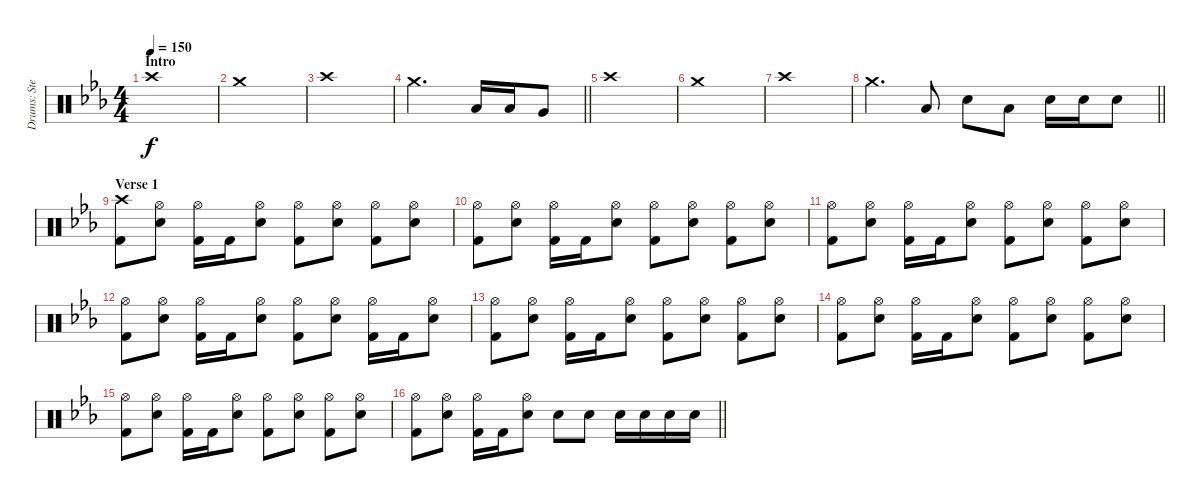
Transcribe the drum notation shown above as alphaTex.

\track ("Drums: Stefan Svantesson" "Drums: Ste") {instrument percussion}
\staff {score}
\articulation defaults
\ts (4 4)
\section ("" "Intro")
\tempo 150
\clef neutral
\ks cminor "Crash high (hit)".1{dy f}
|
"Crash medium (hit)".1 |
"Crash high (hit)".1 |
\barLineRight lightlight "Crash medium (hit)".2{d} "Low Tom (hit)".16 "Low Tom (hit)".16 "Very Low Tom (hit)".8
|
"Crash high (hit)".1 |
"Crash medium (hit)".1 |
"Crash high (hit)".1 |
\barLineRight lightlight "Crash medium (hit)".4{d} "Low Tom (hit)".8 "Electric Snare (hit)".8 "Low Tom (hit)".8 "Electric Snare (hit)".16 "Electric Snare (hit)".16 "Electric Snare (hit)".8
|
\section ("" "Verse 1")
("Crash high (hit)" "Kick (hit) 2").8 ("Hi-Hat (open)" "Electric Snare (hit)").8 ("Hi-Hat (open)" "Kick (hit) 2").16 "Kick (hit) 2".16 ("Hi-Hat (open)" "Electric Snare (hit)").8 ("Hi-Hat (open)" "Kick (hit) 2").8 ("Hi-Hat (open)" "Electric Snare (hit)").8 ("Hi-Hat (open)" "Kick (hit) 2").8 ("Hi-Hat (open)" "Electric Snare (hit)").8 |
("Hi-Hat (open)" "Kick (hit) 2").8 ("Hi-Hat (open)" "Electric Snare (hit)").8 ("Hi-Hat (open)" "Kick (hit) 2").16 "Kick (hit) 2".16 ("Hi-Hat (open)" "Electric Snare (hit)").8 ("Hi-Hat (open)" "Kick (hit) 2").8 ("Hi-Hat (open)" "Electric Snare (hit)").8 ("Hi-Hat (open)" "Kick (hit) 2").8 ("Hi-Hat (open)" "Electric Snare (hit)").8 |
("Hi-Hat (open)" "Kick (hit) 2").8 ("Hi-Hat (open)" "Electric Snare (hit)").8 ("Hi-Hat (open)" "Kick (hit) 2").16 "Kick (hit) 2".16 ("Hi-Hat (open)" "Electric Snare (hit)").8 ("Hi-Hat (open)" "Kick (hit) 2").8 ("Hi-Hat (open)" "Electric Snare (hit)").8 ("Hi-Hat (open)" "Kick (hit) 2").8 ("Hi-Hat (open)" "Electric Snare (hit)").8 |
("Hi-Hat (open)" "Kick (hit) 2").8 ("Hi-Hat (open)" "Electric Snare (hit)").8 ("Hi-Hat (open)" "Kick (hit) 2").16 "Kick (hit) 2".16 ("Hi-Hat (open)" "Electric Snare (hit)").8 ("Hi-Hat (open)" "Kick (hit) 2").8 ("Hi-Hat (open)" "Electric Snare (hit)").8 ("Hi-Hat (open)" "Kick (hit) 2").16 "Kick (hit) 2".16 ("Hi-Hat (open)" "Electric Snare (hit)").8 |
("Hi-Hat (open)" "Kick (hit) 2").8 ("Hi-Hat (open)" "Electric Snare (hit)").8 ("Hi-Hat (open)" "Kick (hit) 2").16 "Kick (hit) 2".16 ("Hi-Hat (open)" "Electric Snare (hit)").8 ("Hi-Hat (open)" "Kick (hit) 2").8 ("Hi-Hat (open)" "Electric Snare (hit)").8 ("Hi-Hat (open)" "Kick (hit) 2").8 ("Hi-Hat (open)" "Electric Snare (hit)").8 |
("Hi-Hat (open)" "Kick (hit) 2").8 ("Hi-Hat (open)" "Electric Snare (hit)").8 ("Hi-Hat (open)" "Kick (hit) 2").16 "Kick (hit) 2".16 ("Hi-Hat (open)" "Electric Snare (hit)").8 ("Hi-Hat (open)" "Kick (hit) 2").8 ("Hi-Hat (open)" "Electric Snare (hit)").8 ("Hi-Hat (open)" "Kick (hit) 2").8 ("Hi-Hat (open)" "Electric Snare (hit)").8 |
("Hi-Hat (open)" "Kick (hit) 2").8 ("Hi-Hat (open)" "Electric Snare (hit)").8 ("Hi-Hat (open)" "Kick (hit) 2").16 "Kick (hit) 2".16 ("Hi-Hat (open)" "Electric Snare (hit)").8 ("Hi-Hat (open)" "Kick (hit) 2").8 ("Hi-Hat (open)" "Electric Snare (hit)").8 ("Hi-Hat (open)" "Kick (hit) 2").8 ("Hi-Hat (open)" "Electric Snare (hit)").8 |
\barLineRight lightlight
("Hi-Hat (open)" "Kick (hit) 2").8 ("Hi-Hat (open)" "Electric Snare (hit)").8 ("Hi-Hat (open)" "Kick (hit) 2").16 "Kick (hit) 2".16 ("Hi-Hat (open)" "Electric Snare (hit)").8 "Electric Snare (hit)".8 "Electric Snare (hit)".8 "Electric Snare (hit)".16 "Electric Snare (hit)".16 "Electric Snare (hit)".16 "Electric Snare (hit)".16
